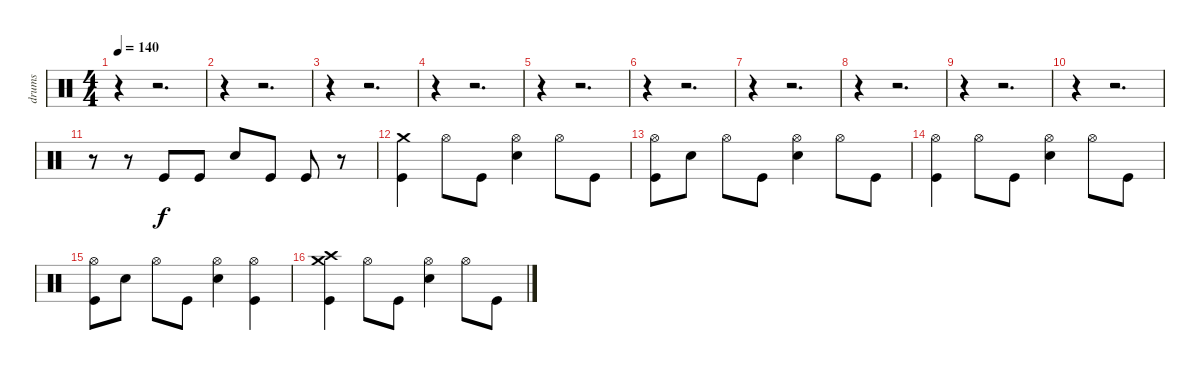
\track ("drums" "drums") {instrument percussion}
\staff {score}
\articulation defaults
\ts (4 4)
\tempo 140
\clef neutral
\ks c
r.4{dy f} r.2{d} |
r.4 r.2{d} |
r.4 r.2{d} |
r.4 r.2{d} |
r.4 r.2{d} |
r.4 r.2{d} |
r.4 r.2{d} |
r.4 r.2{d} |
r.4 r.2{d} |
r.4 r.2{d} |
r.8 r.8 "Kick (hit)".8 "Kick (hit)".8 "Snare (hit) 2".8 "Kick (hit)".8 "Kick (hit)".8 r.8 |
("Crash medium (hit)" "Kick (hit)").4 "Hi-Hat (open)".8 "Kick (hit)".8 ("Hi-Hat (open)" "Snare (hit) 2").4 "Hi-Hat (open)".8 "Kick (hit)".8 |
("Hi-Hat (open)" "Kick (hit)").8 "Snare (hit) 2".8 "Hi-Hat (open)".8 "Kick (hit)".8 ("Hi-Hat (open)" "Snare (hit) 2").4 "Hi-Hat (open)".8 "Kick (hit)".8 |
("Hi-Hat (open)" "Kick (hit)").4 "Hi-Hat (open)".8 "Kick (hit)".8 ("Hi-Hat (open)" "Snare (hit) 2").4 "Hi-Hat (open)".8 "Kick (hit)".8 |
("Hi-Hat (open)" "Kick (hit)").8 "Snare (hit) 2".8 "Hi-Hat (open)".8 "Kick (hit)".8 ("Hi-Hat (open)" "Snare (hit) 2").4 ("Hi-Hat (open)" "Kick (hit)").4 |
("Crash medium (hit)" "Crash high (hit)" "Kick (hit)").4 "Hi-Hat (open)".8 "Kick (hit)".8 ("Hi-Hat (open)" "Snare (hit) 2").4 "Hi-Hat (open)".8 "Kick (hit)".8
